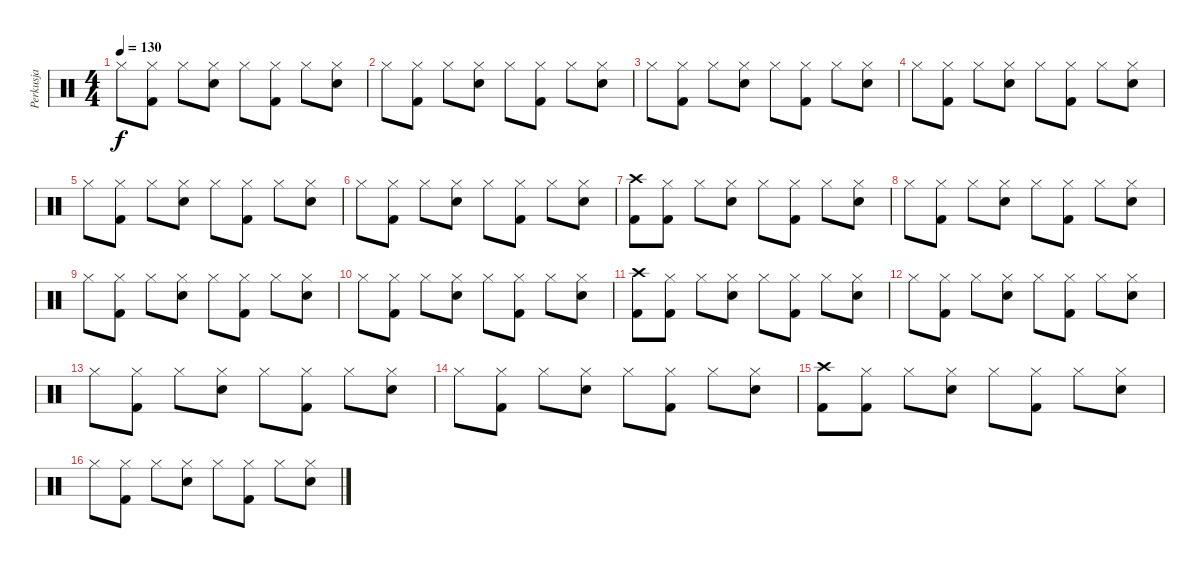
\track ("Perkusja" "Perkusja") {instrument percussion}
\staff {score}
\articulation defaults
\ts (4 4)
\tempo 130
\clef neutral
\ks c "Hi-Hat (closed)".8{dy f}
("Hi-Hat (closed)" "Kick (hit) 2").8 "Hi-Hat (closed)".8 ("Hi-Hat (closed)" "Snare (hit) 2").8 "Hi-Hat (closed)".8 ("Hi-Hat (closed)" "Kick (hit) 2").8 "Hi-Hat (closed)".8 ("Hi-Hat (closed)" "Snare (hit) 2").8 |
"Hi-Hat (closed)".8 ("Hi-Hat (closed)" "Kick (hit) 2").8 "Hi-Hat (closed)".8 ("Hi-Hat (closed)" "Snare (hit) 2").8 "Hi-Hat (closed)".8 ("Hi-Hat (closed)" "Kick (hit) 2").8 "Hi-Hat (closed)".8 ("Hi-Hat (closed)" "Snare (hit) 2").8 |
"Hi-Hat (closed)".8 ("Hi-Hat (closed)" "Kick (hit) 2").8 "Hi-Hat (closed)".8 ("Hi-Hat (closed)" "Snare (hit) 2").8 "Hi-Hat (closed)".8 ("Hi-Hat (closed)" "Kick (hit) 2").8 "Hi-Hat (closed)".8 ("Hi-Hat (closed)" "Snare (hit) 2").8 |
"Hi-Hat (closed)".8 ("Hi-Hat (closed)" "Kick (hit) 2").8 "Hi-Hat (closed)".8 ("Hi-Hat (closed)" "Snare (hit) 2").8 "Hi-Hat (closed)".8 ("Hi-Hat (closed)" "Kick (hit) 2").8 "Hi-Hat (closed)".8 ("Hi-Hat (closed)" "Snare (hit) 2").8 |
"Hi-Hat (closed)".8 ("Hi-Hat (closed)" "Kick (hit) 2").8 "Hi-Hat (closed)".8 ("Hi-Hat (closed)" "Snare (hit) 2").8 "Hi-Hat (closed)".8 ("Hi-Hat (closed)" "Kick (hit) 2").8 "Hi-Hat (closed)".8 ("Hi-Hat (closed)" "Snare (hit) 2").8 |
"Hi-Hat (closed)".8 ("Hi-Hat (closed)" "Kick (hit) 2").8 "Hi-Hat (closed)".8 ("Hi-Hat (closed)" "Snare (hit) 2").8 "Hi-Hat (closed)".8 ("Hi-Hat (closed)" "Kick (hit) 2").8 "Hi-Hat (closed)".8 ("Hi-Hat (closed)" "Snare (hit) 2").8 |
("Crash high (hit)" "Kick (hit) 2").8 ("Hi-Hat (closed)" "Kick (hit) 2").8 "Hi-Hat (closed)".8 ("Hi-Hat (closed)" "Snare (hit) 2").8 "Hi-Hat (closed)".8 ("Hi-Hat (closed)" "Kick (hit) 2").8 "Hi-Hat (closed)".8 ("Hi-Hat (closed)" "Snare (hit) 2").8 |
"Hi-Hat (closed)".8 ("Hi-Hat (closed)" "Kick (hit) 2").8 "Hi-Hat (closed)".8 ("Hi-Hat (closed)" "Snare (hit) 2").8 "Hi-Hat (closed)".8 ("Hi-Hat (closed)" "Kick (hit) 2").8 "Hi-Hat (closed)".8 ("Hi-Hat (closed)" "Snare (hit) 2").8 |
"Hi-Hat (closed)".8 ("Hi-Hat (closed)" "Kick (hit) 2").8 "Hi-Hat (closed)".8 ("Hi-Hat (closed)" "Snare (hit) 2").8 "Hi-Hat (closed)".8 ("Hi-Hat (closed)" "Kick (hit) 2").8 "Hi-Hat (closed)".8 ("Hi-Hat (closed)" "Snare (hit) 2").8 |
"Hi-Hat (closed)".8 ("Hi-Hat (closed)" "Kick (hit) 2").8 "Hi-Hat (closed)".8 ("Hi-Hat (closed)" "Snare (hit) 2").8 "Hi-Hat (closed)".8 ("Hi-Hat (closed)" "Kick (hit) 2").8 "Hi-Hat (closed)".8 ("Hi-Hat (closed)" "Snare (hit) 2").8 |
("Crash high (hit)" "Kick (hit) 2").8 ("Hi-Hat (closed)" "Kick (hit) 2").8 "Hi-Hat (closed)".8 ("Hi-Hat (closed)" "Snare (hit) 2").8 "Hi-Hat (closed)".8 ("Hi-Hat (closed)" "Kick (hit) 2").8 "Hi-Hat (closed)".8 ("Hi-Hat (closed)" "Snare (hit) 2").8 |
"Hi-Hat (closed)".8 ("Hi-Hat (closed)" "Kick (hit) 2").8 "Hi-Hat (closed)".8 ("Hi-Hat (closed)" "Snare (hit) 2").8 "Hi-Hat (closed)".8 ("Hi-Hat (closed)" "Kick (hit) 2").8 "Hi-Hat (closed)".8 ("Hi-Hat (closed)" "Snare (hit) 2").8 |
"Hi-Hat (closed)".8 ("Hi-Hat (closed)" "Kick (hit) 2").8 "Hi-Hat (closed)".8 ("Hi-Hat (closed)" "Snare (hit) 2").8 "Hi-Hat (closed)".8 ("Hi-Hat (closed)" "Kick (hit) 2").8 "Hi-Hat (closed)".8 ("Hi-Hat (closed)" "Snare (hit) 2").8 |
"Hi-Hat (closed)".8 ("Hi-Hat (closed)" "Kick (hit) 2").8 "Hi-Hat (closed)".8 ("Hi-Hat (closed)" "Snare (hit) 2").8 "Hi-Hat (closed)".8 ("Hi-Hat (closed)" "Kick (hit) 2").8 "Hi-Hat (closed)".8 ("Hi-Hat (closed)" "Snare (hit) 2").8 |
("Crash high (hit)" "Kick (hit) 2").8 ("Hi-Hat (closed)" "Kick (hit) 2").8 "Hi-Hat (closed)".8 ("Hi-Hat (closed)" "Snare (hit) 2").8 "Hi-Hat (closed)".8 ("Hi-Hat (closed)" "Kick (hit) 2").8 "Hi-Hat (closed)".8 ("Hi-Hat (closed)" "Snare (hit) 2").8 |
"Hi-Hat (closed)".8 ("Hi-Hat (closed)" "Kick (hit) 2").8 "Hi-Hat (closed)".8 ("Hi-Hat (closed)" "Snare (hit) 2").8 "Hi-Hat (closed)".8 ("Hi-Hat (closed)" "Kick (hit) 2").8 "Hi-Hat (closed)".8 ("Hi-Hat (closed)" "Snare (hit) 2").8
